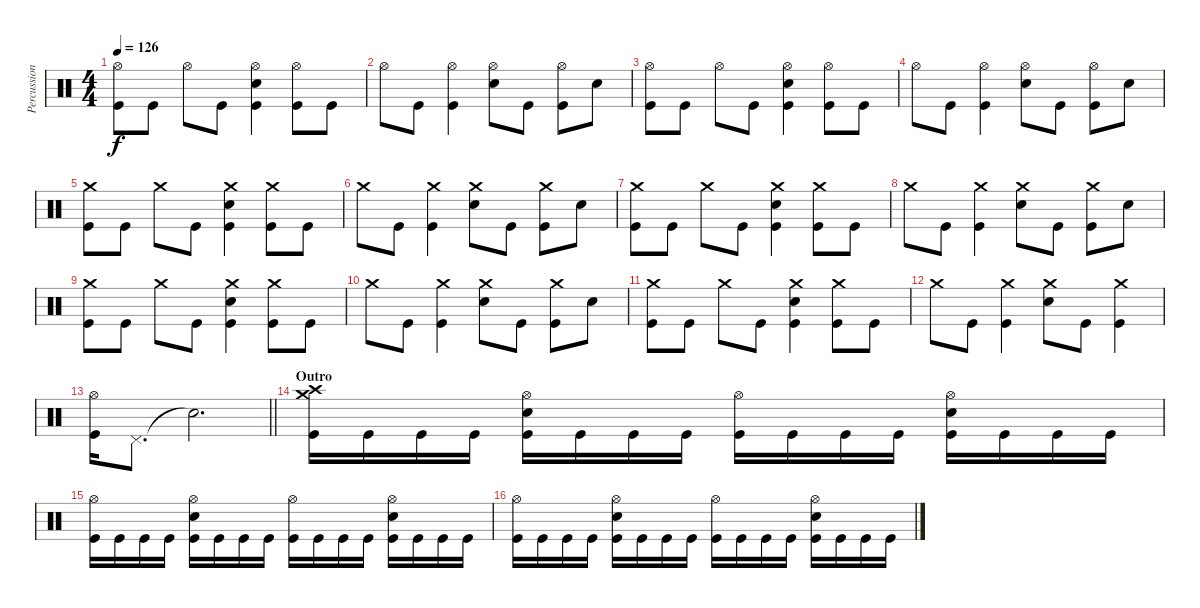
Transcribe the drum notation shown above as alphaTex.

\track ("Percussion" "Percussion") {instrument percussion}
\staff {score}
\articulation defaults
\ts (4 4)
\tempo 126
\clef neutral
\ks c
("Hi-Hat (open)" "Kick (hit)").8{dy f} "Kick (hit)".8 "Hi-Hat (open)".8 "Kick (hit)".8 ("Hi-Hat (open)" "Electric Snare (hit)" "Kick (hit)").4 ("Hi-Hat (open)" "Kick (hit)").8 "Kick (hit)".8 |
"Hi-Hat (open)".8 "Kick (hit)".8 ("Hi-Hat (open)" "Kick (hit)").4 ("Hi-Hat (open)" "Electric Snare (hit)").8 "Kick (hit)".8 ("Hi-Hat (open)" "Kick (hit)").8 "Electric Snare (hit)".8 |
("Hi-Hat (open)" "Kick (hit)").8 "Kick (hit)".8 "Hi-Hat (open)".8 "Kick (hit)".8 ("Hi-Hat (open)" "Electric Snare (hit)" "Kick (hit)").4 ("Hi-Hat (open)" "Kick (hit)").8 "Kick (hit)".8 |
"Hi-Hat (open)".8 "Kick (hit)".8 ("Hi-Hat (open)" "Kick (hit)").4 ("Hi-Hat (open)" "Electric Snare (hit)").8 "Kick (hit)".8 ("Hi-Hat (open)" "Kick (hit)").8 "Electric Snare (hit)".8 |
("Crash medium (hit)" "Kick (hit)").8 "Kick (hit)".8 "Crash medium (hit)".8 "Kick (hit)".8 ("Crash medium (hit)" "Electric Snare (hit)" "Kick (hit)").4 ("Crash medium (hit)" "Kick (hit)").8 "Kick (hit)".8 |
"Crash medium (hit)".8 "Kick (hit)".8 ("Crash medium (hit)" "Kick (hit)").4 ("Crash medium (hit)" "Electric Snare (hit)").8 "Kick (hit)".8 ("Crash medium (hit)" "Kick (hit)").8 "Electric Snare (hit)".8 |
("Crash medium (hit)" "Kick (hit)").8 "Kick (hit)".8 "Crash medium (hit)".8 "Kick (hit)".8 ("Crash medium (hit)" "Electric Snare (hit)" "Kick (hit)").4 ("Crash medium (hit)" "Kick (hit)").8 "Kick (hit)".8 |
"Crash medium (hit)".8 "Kick (hit)".8 ("Crash medium (hit)" "Kick (hit)").4 ("Crash medium (hit)" "Electric Snare (hit)").8 "Kick (hit)".8 ("Crash medium (hit)" "Kick (hit)").8 "Electric Snare (hit)".8 |
("Crash medium (hit)" "Kick (hit)").8 "Kick (hit)".8 "Crash medium (hit)".8 "Kick (hit)".8 ("Crash medium (hit)" "Electric Snare (hit)" "Kick (hit)").4 ("Crash medium (hit)" "Kick (hit)").8 "Kick (hit)".8 |
"Crash medium (hit)".8 "Kick (hit)".8 ("Crash medium (hit)" "Kick (hit)").4 ("Crash medium (hit)" "Electric Snare (hit)").8 "Kick (hit)".8 ("Crash medium (hit)" "Kick (hit)").8 "Electric Snare (hit)".8 |
("Crash medium (hit)" "Kick (hit)").8 "Kick (hit)".8 "Crash medium (hit)".8 "Kick (hit)".8 ("Crash medium (hit)" "Electric Snare (hit)" "Kick (hit)").4 ("Crash medium (hit)" "Kick (hit)").8 "Kick (hit)".8 |
"Crash medium (hit)".8 "Kick (hit)".8 ("Crash medium (hit)" "Kick (hit)").4 ("Crash medium (hit)" "Electric Snare (hit)").8 "Kick (hit)".8 ("Crash medium (hit)" "Kick (hit)").4 |
\barLineRight lightlight
("Hi-Hat (open)" "Kick (hit)").16 "Pedal Hi-Hat (hit)".8{d} "Snare (hit)"{t}.2{d} |
\section ("" "Outro")
("Crash high (hit)" "Crash medium (hit)" "Kick (hit)").16 "Kick (hit)".16 "Kick (hit)".16 "Kick (hit)".16 ("Hi-Hat (open)" "Electric Snare (hit)" "Kick (hit)").16 "Kick (hit)".16 "Kick (hit)".16 "Kick (hit)".16 ("Hi-Hat (open)" "Kick (hit)").16 "Kick (hit)".16 "Kick (hit)".16 "Kick (hit)".16 ("Hi-Hat (open)" "Electric Snare (hit)" "Kick (hit)").16 "Kick (hit)".16 "Kick (hit)".16 "Kick (hit)".16 |
("Hi-Hat (open)" "Kick (hit)").16 "Kick (hit)".16 "Kick (hit)".16 "Kick (hit)".16 ("Hi-Hat (open)" "Electric Snare (hit)" "Kick (hit)").16 "Kick (hit)".16 "Kick (hit)".16 "Kick (hit)".16 ("Hi-Hat (open)" "Kick (hit)").16 "Kick (hit)".16 "Kick (hit)".16 "Kick (hit)".16 ("Hi-Hat (open)" "Electric Snare (hit)" "Kick (hit)").16 "Kick (hit)".16 "Kick (hit)".16 "Kick (hit)".16 |
("Hi-Hat (open)" "Kick (hit)").16 "Kick (hit)".16 "Kick (hit)".16 "Kick (hit)".16 ("Hi-Hat (open)" "Electric Snare (hit)" "Kick (hit)").16 "Kick (hit)".16 "Kick (hit)".16 "Kick (hit)".16 ("Hi-Hat (open)" "Kick (hit)").16 "Kick (hit)".16 "Kick (hit)".16 "Kick (hit)".16 ("Hi-Hat (open)" "Electric Snare (hit)" "Kick (hit)").16 "Kick (hit)".16 "Kick (hit)".16 "Kick (hit)".16
